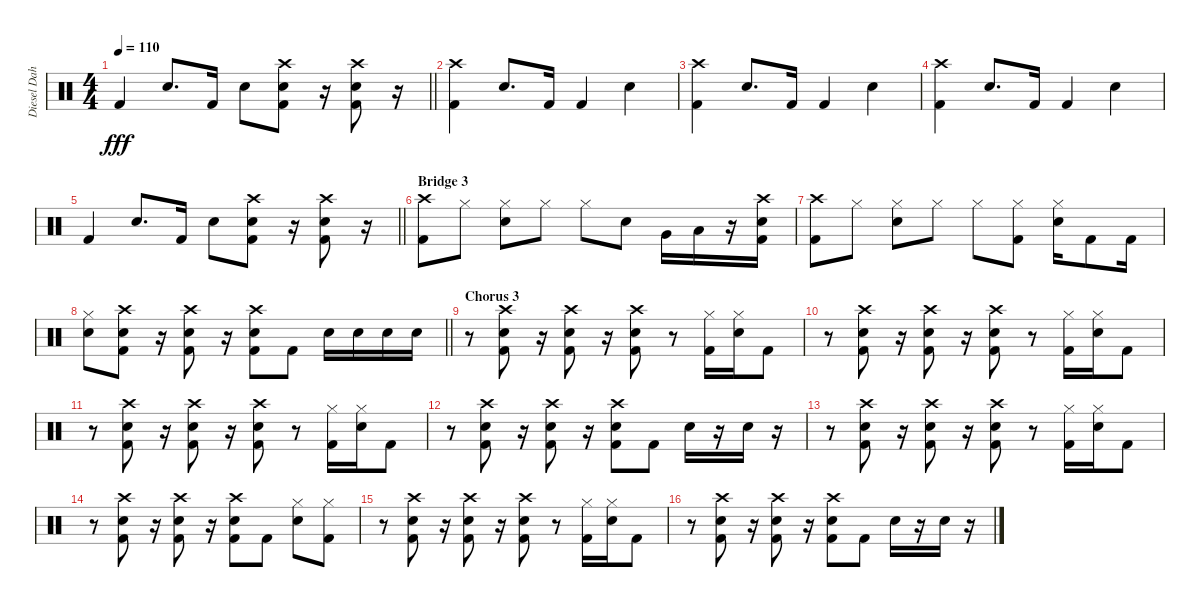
\track ("Diesel Dahl" "Diesel Dah") {instrument percussion}
\staff {score}
\articulation defaults
\ts (4 4)
\tempo 110
\clef neutral
\barLineRight lightlight
\ks c "Kick (hit) 2".4{dy fff} "Snare (hit) 2".8{d} "Kick (hit) 2".16 "Snare (hit) 2".8
("Crash high (hit)" "Snare (hit) 2" "Kick (hit) 2").8 r.16 ("Crash high (hit)" "Snare (hit) 2" "Kick (hit) 2").8 r.16 |
("Crash high (hit)" "Kick (hit) 2").4 "Snare (hit) 2".8{d} "Kick (hit) 2".16 "Kick (hit) 2".4 "Snare (hit) 2".4 |
("Crash high (hit)" "Kick (hit) 2").4 "Snare (hit) 2".8{d} "Kick (hit) 2".16 "Kick (hit) 2".4 "Snare (hit) 2".4 |
("Crash high (hit)" "Kick (hit) 2").4 "Snare (hit) 2".8{d} "Kick (hit) 2".16 "Kick (hit) 2".4 "Snare (hit) 2".4 |
\barLineRight lightlight "Kick (hit) 2".4 "Snare (hit) 2".8{d} "Kick (hit) 2".16 "Snare (hit) 2".8
("Crash high (hit)" "Snare (hit) 2" "Kick (hit) 2").8 r.16 ("Crash high (hit)" "Snare (hit) 2" "Kick (hit) 2").8 r.16 |
\section ("" "Bridge 3")
("Crash high (hit)" "Kick (hit) 2").8 "Hi-Hat (closed)".8 ("Hi-Hat (closed)" "Snare (hit) 2").8 "Hi-Hat (closed)".8 "Hi-Hat (closed)".8 "Snare (hit) 2".8 "Very Low Tom (hit)".16 "Low Floor Tom (hit)".16 r.16 ("Crash high (hit)" "Snare (hit) 2" "Kick (hit) 2").16 |
("Crash high (hit)" "Kick (hit) 2").8 "Hi-Hat (closed)".8 ("Hi-Hat (closed)" "Snare (hit) 2").8 "Hi-Hat (closed)".8 "Hi-Hat (closed)".8 ("Hi-Hat (closed)" "Kick (hit) 2").8 ("Hi-Hat (closed)" "Snare (hit) 2").16 "Kick (hit) 2".8 "Kick (hit) 2".16 |
\barLineRight lightlight
("Hi-Hat (closed)" "Snare (hit) 2").8 ("Crash high (hit)" "Snare (hit) 2" "Kick (hit) 2").8 r.16 ("Crash high (hit)" "Snare (hit) 2" "Kick (hit) 2").8 r.16 ("Crash high (hit)" "Snare (hit) 2" "Kick (hit) 2").8 "Kick (hit) 2".8 "Snare (hit) 2".16 "Snare (hit) 2".16 "Snare (hit) 2".16 "Snare (hit) 2".16 |
\section ("" "Chorus 3")
r.8 ("Crash high (hit)" "Snare (hit) 2" "Kick (hit) 2").8 r.16 ("Crash high (hit)" "Snare (hit) 2" "Kick (hit) 2").8 r.16 ("Crash high (hit)" "Snare (hit) 2" "Kick (hit) 2").8 r.8 ("Hi-Hat (closed)" "Kick (hit) 2").16 ("Hi-Hat (closed)" "Snare (hit) 2").16 "Kick (hit) 2".8 |
r.8 ("Crash high (hit)" "Snare (hit) 2" "Kick (hit) 2").8 r.16 ("Crash high (hit)" "Snare (hit) 2" "Kick (hit) 2").8 r.16 ("Crash high (hit)" "Snare (hit) 2" "Kick (hit) 2").8 r.8 ("Hi-Hat (closed)" "Kick (hit) 2").16 ("Hi-Hat (closed)" "Snare (hit) 2").16 "Kick (hit) 2".8 |
r.8 ("Crash high (hit)" "Snare (hit) 2" "Kick (hit) 2").8 r.16 ("Crash high (hit)" "Snare (hit) 2" "Kick (hit) 2").8 r.16 ("Crash high (hit)" "Snare (hit) 2" "Kick (hit) 2").8 r.8 ("Hi-Hat (closed)" "Kick (hit) 2").16 ("Hi-Hat (closed)" "Snare (hit) 2").16 "Kick (hit) 2".8 |
r.8 ("Crash high (hit)" "Snare (hit) 2" "Kick (hit) 2").8 r.16 ("Crash high (hit)" "Snare (hit) 2" "Kick (hit) 2").8 r.16 ("Crash high (hit)" "Snare (hit) 2" "Kick (hit) 2").8 "Kick (hit) 2".8 "Snare (hit) 2".16 r.16 "Snare (hit) 2".16 r.16 |
r.8 ("Crash high (hit)" "Snare (hit) 2" "Kick (hit) 2").8 r.16 ("Crash high (hit)" "Snare (hit) 2" "Kick (hit) 2").8 r.16 ("Crash high (hit)" "Snare (hit) 2" "Kick (hit) 2").8 r.8 ("Hi-Hat (closed)" "Kick (hit) 2").16 ("Hi-Hat (closed)" "Snare (hit) 2").16 "Kick (hit) 2".8 |
r.8 ("Crash high (hit)" "Snare (hit) 2" "Kick (hit) 2").8 r.16 ("Crash high (hit)" "Snare (hit) 2" "Kick (hit) 2").8 r.16 ("Crash high (hit)" "Snare (hit) 2" "Kick (hit) 2").8 "Kick (hit) 2".8 ("Hi-Hat (closed)" "Snare (hit) 2").8 ("Hi-Hat (closed)" "Kick (hit) 2").8 |
r.8 ("Crash high (hit)" "Snare (hit) 2" "Kick (hit) 2").8 r.16 ("Crash high (hit)" "Snare (hit) 2" "Kick (hit) 2").8 r.16 ("Crash high (hit)" "Snare (hit) 2" "Kick (hit) 2").8 r.8 ("Hi-Hat (closed)" "Kick (hit) 2").16 ("Hi-Hat (closed)" "Snare (hit) 2").16 "Kick (hit) 2".8 |
r.8 ("Crash high (hit)" "Snare (hit) 2" "Kick (hit) 2").8 r.16 ("Crash high (hit)" "Snare (hit) 2" "Kick (hit) 2").8 r.16 ("Crash high (hit)" "Snare (hit) 2" "Kick (hit) 2").8 "Kick (hit) 2".8 "Snare (hit) 2".16 r.16 "Snare (hit) 2".16 r.16
